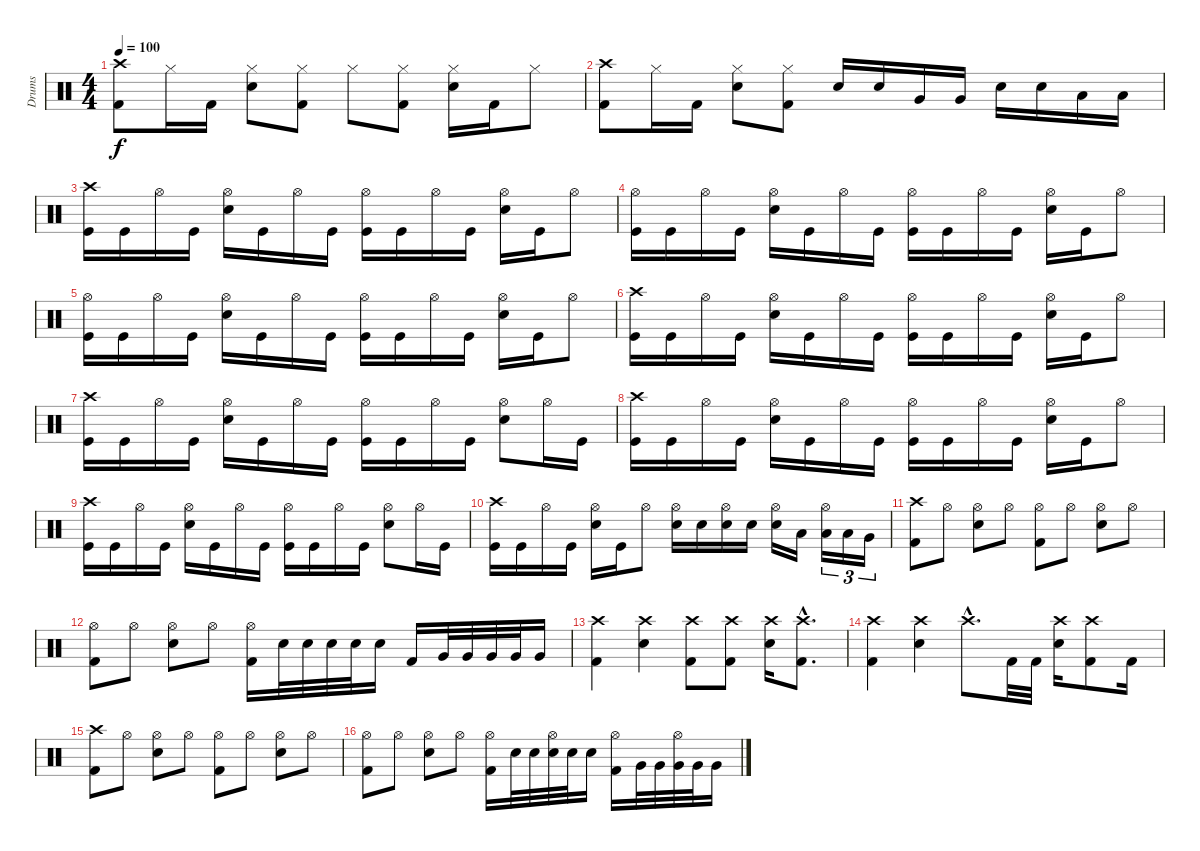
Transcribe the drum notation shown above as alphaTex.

\track ("Drums" "Drums") {instrument percussion}
\staff {score}
\articulation defaults
\ts (4 4)
\tempo 100
\clef neutral
\ks c
("Crash high (hit)" "Kick (hit) 2").8{dy f} "Hi-Hat (closed)".16 "Kick (hit) 2".16 ("Hi-Hat (closed)" "Electric Snare (hit)").8 ("Hi-Hat (closed)" "Kick (hit) 2").8 "Hi-Hat (closed)".8 ("Hi-Hat (closed)" "Kick (hit) 2").8 ("Hi-Hat (closed)" "Electric Snare (hit)").16 "Kick (hit) 2".16 "Hi-Hat (closed)".8 |
("Crash high (hit)" "Kick (hit) 2").8 "Hi-Hat (closed)".16 "Kick (hit) 2".16 ("Hi-Hat (closed)" "Electric Snare (hit)").8 ("Hi-Hat (closed)" "Kick (hit) 2").8 "Electric Snare (hit)".16 "Electric Snare (hit)".16 "Very Low Tom (hit)".16 "Very Low Tom (hit)".16 "Electric Snare (hit)".16 "Electric Snare (hit)".16 "Low Floor Tom (hit)".16 "Low Floor Tom (hit)".16 |
("Crash high (hit)" "Kick (hit)").16 "Kick (hit)".16 "Hi-Hat (open)".16 "Kick (hit)".16 ("Hi-Hat (open)" "Electric Snare (hit)").16 "Kick (hit)".16 "Hi-Hat (open)".16 "Kick (hit)".16 ("Hi-Hat (open)" "Kick (hit)").16 "Kick (hit)".16 "Hi-Hat (open)".16 "Kick (hit)".16 ("Hi-Hat (open)" "Electric Snare (hit)").16 "Kick (hit)".16 "Hi-Hat (open)".8 |
("Hi-Hat (open)" "Kick (hit)").16 "Kick (hit)".16 "Hi-Hat (open)".16 "Kick (hit)".16 ("Hi-Hat (open)" "Electric Snare (hit)").16 "Kick (hit)".16 "Hi-Hat (open)".16 "Kick (hit)".16 ("Hi-Hat (open)" "Kick (hit)").16 "Kick (hit)".16 "Hi-Hat (open)".16 "Kick (hit)".16 ("Hi-Hat (open)" "Electric Snare (hit)").16 "Kick (hit)".16 "Hi-Hat (open)".8 |
("Hi-Hat (open)" "Kick (hit)").16 "Kick (hit)".16 "Hi-Hat (open)".16 "Kick (hit)".16 ("Hi-Hat (open)" "Electric Snare (hit)").16 "Kick (hit)".16 "Hi-Hat (open)".16 "Kick (hit)".16 ("Hi-Hat (open)" "Kick (hit)").16 "Kick (hit)".16 "Hi-Hat (open)".16 "Kick (hit)".16 ("Hi-Hat (open)" "Electric Snare (hit)").16 "Kick (hit)".16 "Hi-Hat (open)".8 |
("Crash high (hit)" "Kick (hit)").16 "Kick (hit)".16 "Hi-Hat (open)".16 "Kick (hit)".16 ("Hi-Hat (open)" "Electric Snare (hit)").16 "Kick (hit)".16 "Hi-Hat (open)".16 "Kick (hit)".16 ("Hi-Hat (open)" "Kick (hit)").16 "Kick (hit)".16 "Hi-Hat (open)".16 "Kick (hit)".16 ("Hi-Hat (open)" "Electric Snare (hit)").16 "Kick (hit)".16 "Hi-Hat (open)".8 |
("Crash high (hit)" "Kick (hit)").16 "Kick (hit)".16 "Hi-Hat (open)".16 "Kick (hit)".16 ("Hi-Hat (open)" "Electric Snare (hit)").16 "Kick (hit)".16 "Hi-Hat (open)".16 "Kick (hit)".16 ("Hi-Hat (open)" "Kick (hit)").16 "Kick (hit)".16 "Hi-Hat (open)".16 "Kick (hit)".16 ("Hi-Hat (open)" "Electric Snare (hit)").8 "Hi-Hat (open)".16 "Kick (hit)".16 |
("Crash high (hit)" "Kick (hit)").16 "Kick (hit)".16 "Hi-Hat (open)".16 "Kick (hit)".16 ("Hi-Hat (open)" "Electric Snare (hit)").16 "Kick (hit)".16 "Hi-Hat (open)".16 "Kick (hit)".16 ("Hi-Hat (open)" "Kick (hit)").16 "Kick (hit)".16 "Hi-Hat (open)".16 "Kick (hit)".16 ("Hi-Hat (open)" "Electric Snare (hit)").16 "Kick (hit)".16 "Hi-Hat (open)".8 |
("Crash high (hit)" "Kick (hit)").16 "Kick (hit)".16 "Hi-Hat (open)".16 "Kick (hit)".16 ("Hi-Hat (open)" "Electric Snare (hit)").16 "Kick (hit)".16 "Hi-Hat (open)".16 "Kick (hit)".16 ("Hi-Hat (open)" "Kick (hit)").16 "Kick (hit)".16 "Hi-Hat (open)".16 "Kick (hit)".16 ("Hi-Hat (open)" "Electric Snare (hit)").8 "Hi-Hat (open)".16 "Kick (hit)".16 |
("Crash high (hit)" "Kick (hit)").16 "Kick (hit)".16 "Hi-Hat (open)".16 "Kick (hit)".16 ("Hi-Hat (open)" "Electric Snare (hit)").16 "Kick (hit)".16 "Hi-Hat (open)".8 ("Hi-Hat (open)" "Electric Snare (hit)").16 "Electric Snare (hit)".16 ("Hi-Hat (open)" "Electric Snare (hit)").16 "Electric Snare (hit)".16 ("Hi-Hat (open)" "Electric Snare (hit)").16 "Low Tom (hit)".16 ("Hi-Hat (open)" "Low Tom (hit)").16{tu (3 2)} "Low Tom (hit)".16{tu (3 2)} "Very Low Tom (hit)".16{tu (3 2)} |
("Crash high (hit)" "Kick (hit) 2").8 "Hi-Hat (open)".8 ("Hi-Hat (open)" "Electric Snare (hit)").8 "Hi-Hat (open)".8 ("Hi-Hat (open)" "Kick (hit) 2").8 "Hi-Hat (open)".8 ("Hi-Hat (open)" "Electric Snare (hit)").8 "Hi-Hat (open)".8 |
("Hi-Hat (open)" "Kick (hit) 2").8 "Hi-Hat (open)".8 ("Hi-Hat (open)" "Electric Snare (hit)").8 "Hi-Hat (open)".8 ("Hi-Hat (open)" "Kick (hit) 2").16 "Electric Snare (hit)".32 "Electric Snare (hit)".32 "Electric Snare (hit)".32 "Electric Snare (hit)".32 "Electric Snare (hit)".16 "Kick (hit) 2".16 "Very Low Tom (hit)".32 "Very Low Tom (hit)".32 "Very Low Tom (hit)".32 "Very Low Tom (hit)".32 "Very Low Tom (hit)".16 |
("Crash high (hit)" "Kick (hit) 2").4 ("Crash high (hit)" "Electric Snare (hit)").4 ("Crash high (hit)" "Kick (hit) 2").8 ("Crash high (hit)" "Kick (hit) 2").8 ("Crash high (hit)" "Electric Snare (hit)").16 ("Crash high (hit)"{hac} "Kick (hit) 2"{hac}).8{d} |
("Crash high (hit)" "Kick (hit) 2").4 ("Crash high (hit)" "Electric Snare (hit)").4 "Crash high (hit)"{hac}.8{d} "Kick (hit) 2".32 "Kick (hit) 2".32 ("Crash high (hit)" "Electric Snare (hit)").16 ("Crash high (hit)" "Kick (hit) 2").8 "Kick (hit) 2".16 |
("Crash high (hit)" "Kick (hit) 2").8 "Hi-Hat (open)".8 ("Hi-Hat (open)" "Electric Snare (hit)").8 "Hi-Hat (open)".8 ("Hi-Hat (open)" "Kick (hit) 2").8 "Hi-Hat (open)".8 ("Hi-Hat (open)" "Electric Snare (hit)").8 "Hi-Hat (open)".8 |
("Hi-Hat (open)" "Kick (hit) 2").8 "Hi-Hat (open)".8 ("Hi-Hat (open)" "Electric Snare (hit)").8 "Hi-Hat (open)".8 ("Hi-Hat (open)" "Kick (hit) 2").16 "Electric Snare (hit)".32 "Electric Snare (hit)".32 ("Hi-Hat (open)" "Electric Snare (hit)").32 "Electric Snare (hit)".32 "Electric Snare (hit)".16 ("Hi-Hat (open)" "Kick (hit) 2").16 "Very Low Tom (hit)".32 "Very Low Tom (hit)".32 ("Hi-Hat (open)" "Very Low Tom (hit)").32 "Very Low Tom (hit)".32 "Very Low Tom (hit)".16
